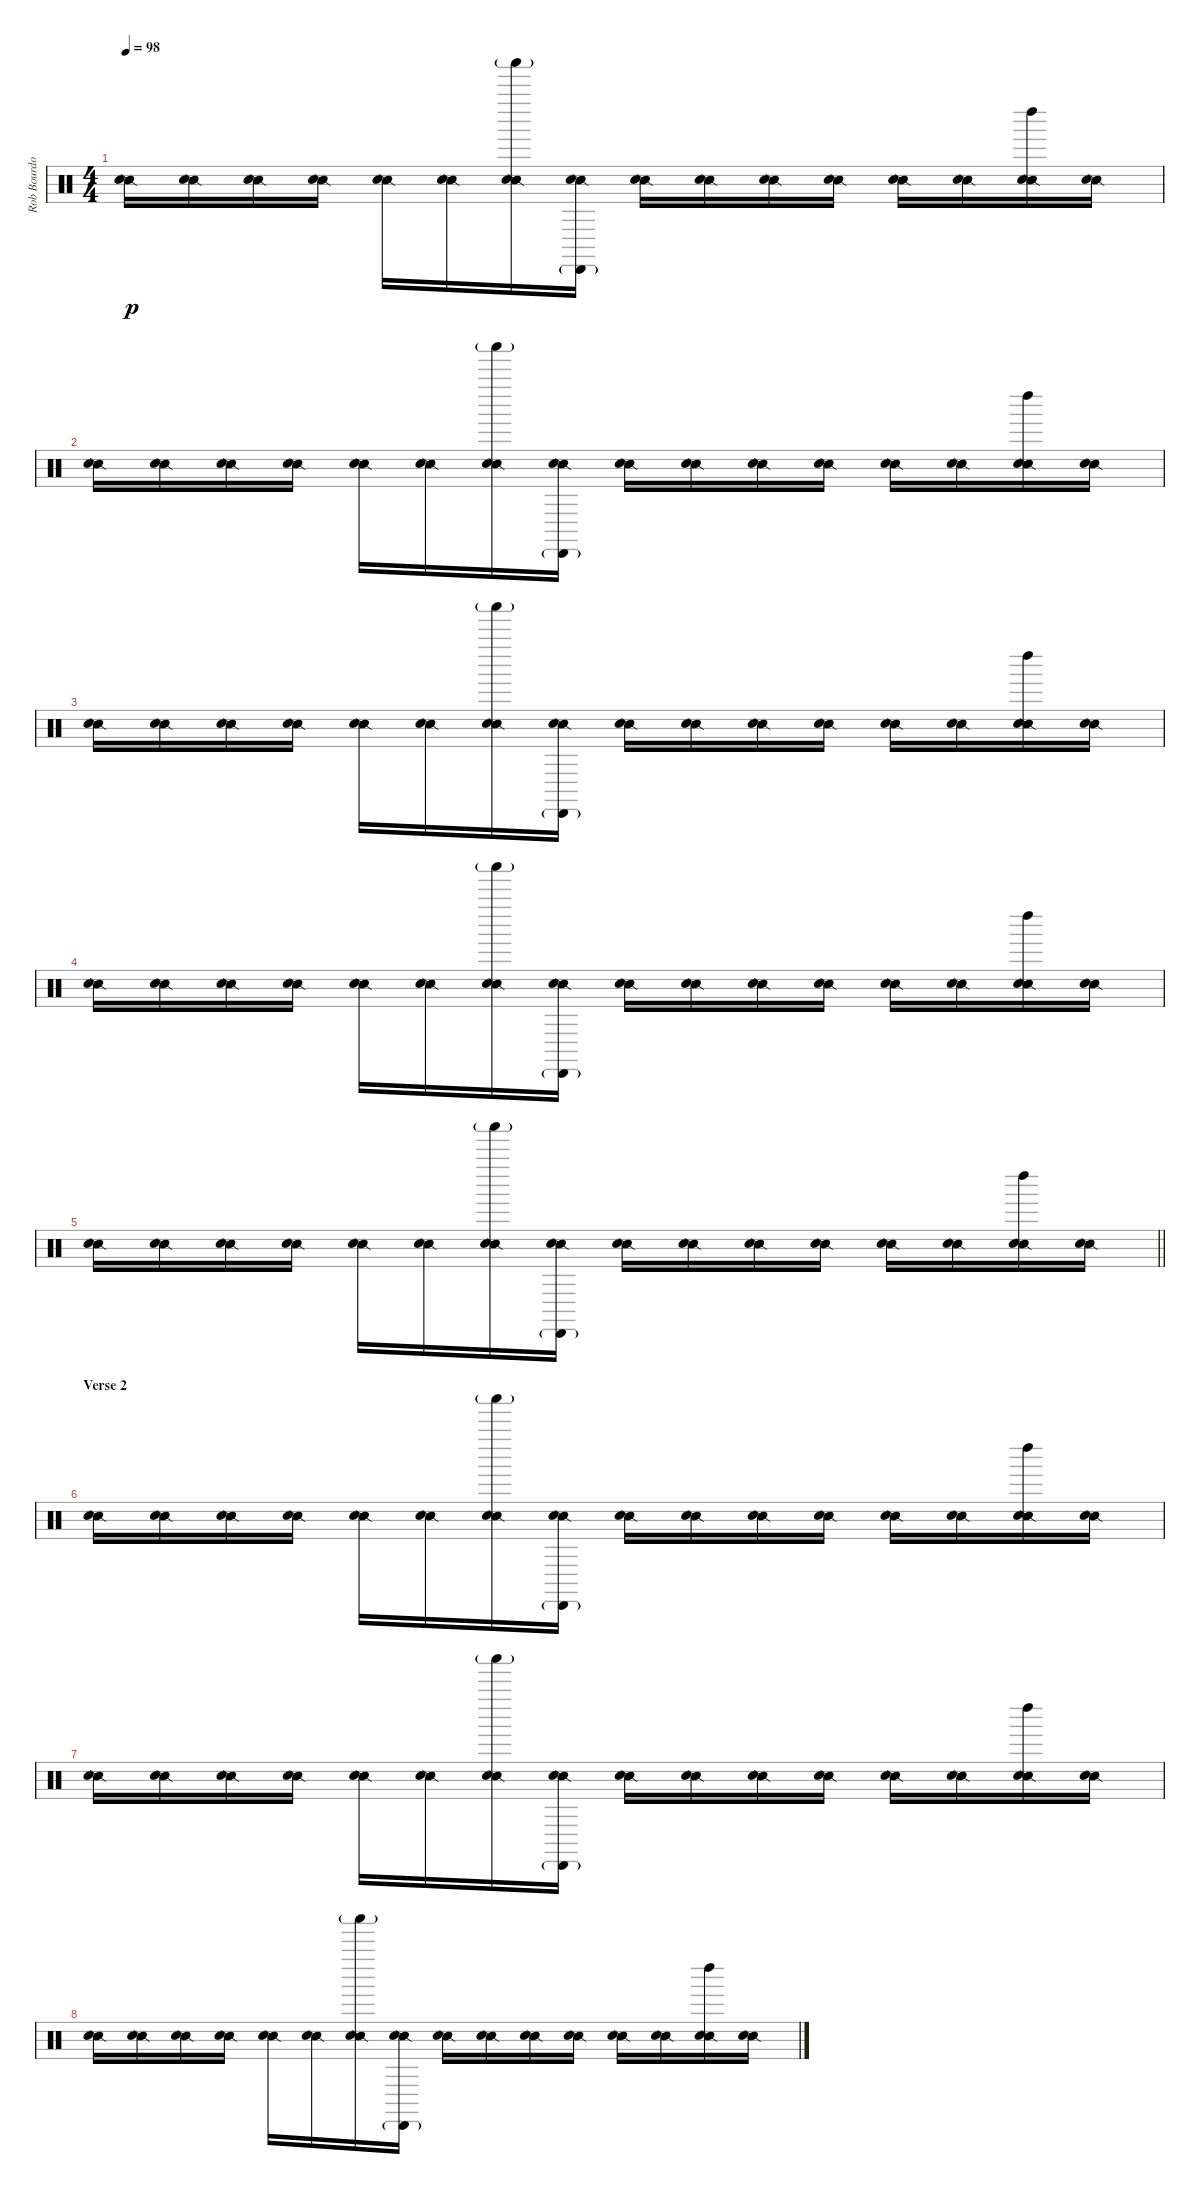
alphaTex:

\track ("Rob Bourdon (Drums)" "Rob Bourdo") {instrument percussion}
\staff {score}
\articulation defaults
\ts (4 4)
\tempo 98
\clef neutral
\ks c
("Snare (side stick) 2" "Hand Clap (hit)").16{dy p} ("Snare (side stick) 2" "Hand Clap (hit)").16 ("Snare (side stick) 2" "Hand Clap (hit)").16 ("Snare (side stick) 2" "Hand Clap (hit)").16 ("Snare (side stick) 2" "Hand Clap (hit)").16 ("Snare (side stick) 2" "Hand Clap (hit)").16 ("Shaker (hit)"{g} "Snare (side stick) 2" "Hand Clap (hit)").16 ("Cabasa (hit)"{g} "Snare (side stick) 2" "Hand Clap (hit)").16 ("Snare (side stick) 2" "Hand Clap (hit)").16 ("Snare (side stick) 2" "Hand Clap (hit)").16 ("Snare (side stick) 2" "Hand Clap (hit)").16 ("Snare (side stick) 2" "Hand Clap (hit)").16 ("Snare (side stick) 2" "Hand Clap (hit)").16 ("Snare (side stick) 2" "Hand Clap (hit)").16 ("Left Maraca (hit)" "Snare (side stick) 2" "Hand Clap (hit)").16 ("Snare (side stick) 2" "Hand Clap (hit)").16 |
("Snare (side stick) 2" "Hand Clap (hit)").16 ("Snare (side stick) 2" "Hand Clap (hit)").16 ("Snare (side stick) 2" "Hand Clap (hit)").16 ("Snare (side stick) 2" "Hand Clap (hit)").16 ("Snare (side stick) 2" "Hand Clap (hit)").16 ("Snare (side stick) 2" "Hand Clap (hit)").16 ("Shaker (hit)"{g} "Snare (side stick) 2" "Hand Clap (hit)").16 ("Cabasa (hit)"{g} "Snare (side stick) 2" "Hand Clap (hit)").16 ("Snare (side stick) 2" "Hand Clap (hit)").16 ("Snare (side stick) 2" "Hand Clap (hit)").16 ("Snare (side stick) 2" "Hand Clap (hit)").16 ("Snare (side stick) 2" "Hand Clap (hit)").16 ("Snare (side stick) 2" "Hand Clap (hit)").16 ("Snare (side stick) 2" "Hand Clap (hit)").16 ("Left Maraca (hit)" "Snare (side stick) 2" "Hand Clap (hit)").16 ("Snare (side stick) 2" "Hand Clap (hit)").16 |
("Snare (side stick) 2" "Hand Clap (hit)").16 ("Snare (side stick) 2" "Hand Clap (hit)").16 ("Snare (side stick) 2" "Hand Clap (hit)").16 ("Snare (side stick) 2" "Hand Clap (hit)").16 ("Snare (side stick) 2" "Hand Clap (hit)").16 ("Snare (side stick) 2" "Hand Clap (hit)").16 ("Shaker (hit)"{g} "Snare (side stick) 2" "Hand Clap (hit)").16 ("Cabasa (hit)"{g} "Snare (side stick) 2" "Hand Clap (hit)").16 ("Snare (side stick) 2" "Hand Clap (hit)").16 ("Snare (side stick) 2" "Hand Clap (hit)").16 ("Snare (side stick) 2" "Hand Clap (hit)").16 ("Snare (side stick) 2" "Hand Clap (hit)").16 ("Snare (side stick) 2" "Hand Clap (hit)").16 ("Snare (side stick) 2" "Hand Clap (hit)").16 ("Left Maraca (hit)" "Snare (side stick) 2" "Hand Clap (hit)").16 ("Snare (side stick) 2" "Hand Clap (hit)").16 |
("Snare (side stick) 2" "Hand Clap (hit)").16 ("Snare (side stick) 2" "Hand Clap (hit)").16 ("Snare (side stick) 2" "Hand Clap (hit)").16 ("Snare (side stick) 2" "Hand Clap (hit)").16 ("Snare (side stick) 2" "Hand Clap (hit)").16 ("Snare (side stick) 2" "Hand Clap (hit)").16 ("Shaker (hit)"{g} "Snare (side stick) 2" "Hand Clap (hit)").16 ("Cabasa (hit)"{g} "Snare (side stick) 2" "Hand Clap (hit)").16 ("Snare (side stick) 2" "Hand Clap (hit)").16 ("Snare (side stick) 2" "Hand Clap (hit)").16 ("Snare (side stick) 2" "Hand Clap (hit)").16 ("Snare (side stick) 2" "Hand Clap (hit)").16 ("Snare (side stick) 2" "Hand Clap (hit)").16 ("Snare (side stick) 2" "Hand Clap (hit)").16 ("Left Maraca (hit)" "Snare (side stick) 2" "Hand Clap (hit)").16 ("Snare (side stick) 2" "Hand Clap (hit)").16 |
\barLineRight lightlight
("Snare (side stick) 2" "Hand Clap (hit)").16 ("Snare (side stick) 2" "Hand Clap (hit)").16 ("Snare (side stick) 2" "Hand Clap (hit)").16 ("Snare (side stick) 2" "Hand Clap (hit)").16 ("Snare (side stick) 2" "Hand Clap (hit)").16 ("Snare (side stick) 2" "Hand Clap (hit)").16 ("Shaker (hit)"{g} "Snare (side stick) 2" "Hand Clap (hit)").16 ("Cabasa (hit)"{g} "Snare (side stick) 2" "Hand Clap (hit)").16 ("Snare (side stick) 2" "Hand Clap (hit)").16 ("Snare (side stick) 2" "Hand Clap (hit)").16 ("Snare (side stick) 2" "Hand Clap (hit)").16 ("Snare (side stick) 2" "Hand Clap (hit)").16 ("Snare (side stick) 2" "Hand Clap (hit)").16 ("Snare (side stick) 2" "Hand Clap (hit)").16 ("Left Maraca (hit)" "Snare (side stick) 2" "Hand Clap (hit)").16 ("Snare (side stick) 2" "Hand Clap (hit)").16 |
\section ("" "Verse 2")
("Snare (side stick) 2" "Hand Clap (hit)").16 ("Snare (side stick) 2" "Hand Clap (hit)").16 ("Snare (side stick) 2" "Hand Clap (hit)").16 ("Snare (side stick) 2" "Hand Clap (hit)").16 ("Snare (side stick) 2" "Hand Clap (hit)").16 ("Snare (side stick) 2" "Hand Clap (hit)").16 ("Shaker (hit)"{g} "Snare (side stick) 2" "Hand Clap (hit)").16 ("Cabasa (hit)"{g} "Snare (side stick) 2" "Hand Clap (hit)").16 ("Snare (side stick) 2" "Hand Clap (hit)").16 ("Snare (side stick) 2" "Hand Clap (hit)").16 ("Snare (side stick) 2" "Hand Clap (hit)").16 ("Snare (side stick) 2" "Hand Clap (hit)").16 ("Snare (side stick) 2" "Hand Clap (hit)").16 ("Snare (side stick) 2" "Hand Clap (hit)").16 ("Left Maraca (hit)" "Snare (side stick) 2" "Hand Clap (hit)").16 ("Snare (side stick) 2" "Hand Clap (hit)").16 |
("Snare (side stick) 2" "Hand Clap (hit)").16 ("Snare (side stick) 2" "Hand Clap (hit)").16 ("Snare (side stick) 2" "Hand Clap (hit)").16 ("Snare (side stick) 2" "Hand Clap (hit)").16 ("Snare (side stick) 2" "Hand Clap (hit)").16 ("Snare (side stick) 2" "Hand Clap (hit)").16 ("Shaker (hit)"{g} "Snare (side stick) 2" "Hand Clap (hit)").16 ("Cabasa (hit)"{g} "Snare (side stick) 2" "Hand Clap (hit)").16 ("Snare (side stick) 2" "Hand Clap (hit)").16 ("Snare (side stick) 2" "Hand Clap (hit)").16 ("Snare (side stick) 2" "Hand Clap (hit)").16 ("Snare (side stick) 2" "Hand Clap (hit)").16 ("Snare (side stick) 2" "Hand Clap (hit)").16 ("Snare (side stick) 2" "Hand Clap (hit)").16 ("Left Maraca (hit)" "Snare (side stick) 2" "Hand Clap (hit)").16 ("Snare (side stick) 2" "Hand Clap (hit)").16 |
("Snare (side stick) 2" "Hand Clap (hit)").16 ("Snare (side stick) 2" "Hand Clap (hit)").16 ("Snare (side stick) 2" "Hand Clap (hit)").16 ("Snare (side stick) 2" "Hand Clap (hit)").16 ("Snare (side stick) 2" "Hand Clap (hit)").16 ("Snare (side stick) 2" "Hand Clap (hit)").16 ("Shaker (hit)"{g} "Snare (side stick) 2" "Hand Clap (hit)").16 ("Cabasa (hit)"{g} "Snare (side stick) 2" "Hand Clap (hit)").16 ("Snare (side stick) 2" "Hand Clap (hit)").16 ("Snare (side stick) 2" "Hand Clap (hit)").16 ("Snare (side stick) 2" "Hand Clap (hit)").16 ("Snare (side stick) 2" "Hand Clap (hit)").16 ("Snare (side stick) 2" "Hand Clap (hit)").16 ("Snare (side stick) 2" "Hand Clap (hit)").16 ("Left Maraca (hit)" "Snare (side stick) 2" "Hand Clap (hit)").16 ("Snare (side stick) 2" "Hand Clap (hit)").16
